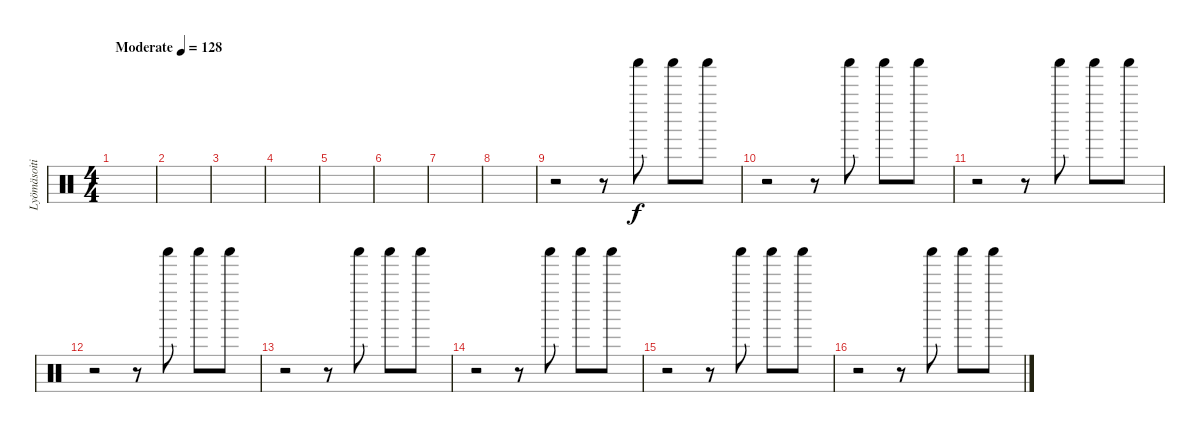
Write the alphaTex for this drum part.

\track ("Lyömäsoitin" "Lyömäsoiti") {instrument percussion}
\staff {score}
\articulation defaults
\ts (4 4)
\tempo (128 "Moderate")
\clef neutral
\ks c
|
|
|
|
|
|
|
|
r.2 r.8 "Shaker (hit)".8 "Shaker (hit)".8 "Shaker (hit)".8 |
r.2 r.8 "Shaker (hit)".8 "Shaker (hit)".8 "Shaker (hit)".8 |
r.2 r.8 "Shaker (hit)".8 "Shaker (hit)".8 "Shaker (hit)".8 |
r.2 r.8 "Shaker (hit)".8 "Shaker (hit)".8 "Shaker (hit)".8 |
r.2 r.8 "Shaker (hit)".8 "Shaker (hit)".8 "Shaker (hit)".8 |
r.2 r.8 "Shaker (hit)".8 "Shaker (hit)".8 "Shaker (hit)".8 |
r.2 r.8 "Shaker (hit)".8 "Shaker (hit)".8 "Shaker (hit)".8 |
r.2 r.8 "Shaker (hit)".8 "Shaker (hit)".8 "Shaker (hit)".8
